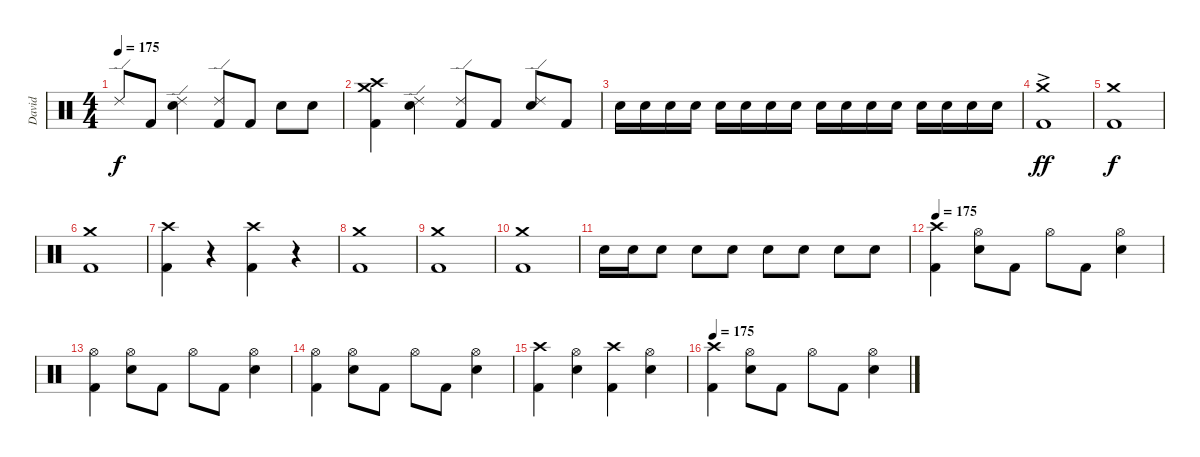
\track ("David" "David") {instrument percussion}
\staff {score}
\articulation defaults
\ts (4 4)
\tempo 175
\clef neutral
\ks c "Ride (edge) 2".8{dy f} "Kick (hit) 2".8
("Ride (edge) 2" "Snare (hit) 2").4 ("Ride (edge) 2" "Kick (hit) 2").8 "Kick (hit) 2".8 "Snare (hit) 2".8 "Snare (hit) 2".8 |
("Crash high (hit)" "Crash medium (hit)" "Kick (hit) 2").4 ("Ride (edge) 2" "Snare (hit) 2").4 ("Ride (edge) 2" "Kick (hit) 2").8 "Kick (hit) 2".8 ("Ride (edge) 2" "Snare (hit) 2").8 "Kick (hit) 2".8 |
"Snare (hit) 2".16 "Snare (hit) 2".16 "Snare (hit) 2".16 "Snare (hit) 2".16 "Snare (hit) 2".16 "Snare (hit) 2".16 "Snare (hit) 2".16 "Snare (hit) 2".16 "Snare (hit) 2".16 "Snare (hit) 2".16 "Snare (hit) 2".16 "Snare (hit) 2".16 "Snare (hit) 2".16 "Snare (hit) 2".16 "Snare (hit) 2".16 "Snare (hit) 2".16 |
("Crash medium (hit)" "Kick (hit) 2"{ac}).1{dy ff} |
("Crash medium (hit)" "Kick (hit) 2").1{dy f} |
("Crash medium (hit)" "Kick (hit) 2").1 |
("Crash high (hit)" "Kick (hit) 2").4 r.4 ("Crash high (hit)" "Kick (hit) 2").4 r.4 |
("Crash medium (hit)" "Kick (hit) 2").1 |
("Crash medium (hit)" "Kick (hit) 2").1 |
("Crash medium (hit)" "Kick (hit) 2").1 |
"Snare (hit) 2".16 "Snare (hit) 2".16 "Snare (hit) 2".8 "Snare (hit) 2".8 "Snare (hit) 2".8 "Snare (hit) 2".8 "Snare (hit) 2".8 "Snare (hit) 2".8 "Snare (hit) 2".8 |
\tempo 175
("Crash high (hit)" "Kick (hit) 2").4 ("Hi-Hat (open)" "Snare (hit) 2").8 "Kick (hit) 2".8 "Hi-Hat (open)".8 "Kick (hit) 2".8 ("Hi-Hat (open)" "Snare (hit) 2").4 |
("Hi-Hat (open)" "Kick (hit) 2").4 ("Hi-Hat (open)" "Snare (hit) 2").8 "Kick (hit) 2".8 "Hi-Hat (open)".8 "Kick (hit) 2".8 ("Hi-Hat (open)" "Snare (hit) 2").4 |
("Hi-Hat (open)" "Kick (hit) 2").4 ("Hi-Hat (open)" "Snare (hit) 2").8 "Kick (hit) 2".8 "Hi-Hat (open)".8 "Kick (hit) 2".8 ("Hi-Hat (open)" "Snare (hit) 2").4 |
("Crash high (hit)" "Kick (hit) 2").4 ("Hi-Hat (open)" "Snare (hit) 2").4 ("Crash high (hit)" "Kick (hit) 2").4 ("Hi-Hat (open)" "Snare (hit) 2").4 |
\tempo 175
("Crash high (hit)" "Kick (hit) 2").4 ("Hi-Hat (open)" "Snare (hit) 2").8 "Kick (hit) 2".8 "Hi-Hat (open)".8 "Kick (hit) 2".8 ("Hi-Hat (open)" "Snare (hit) 2").4
